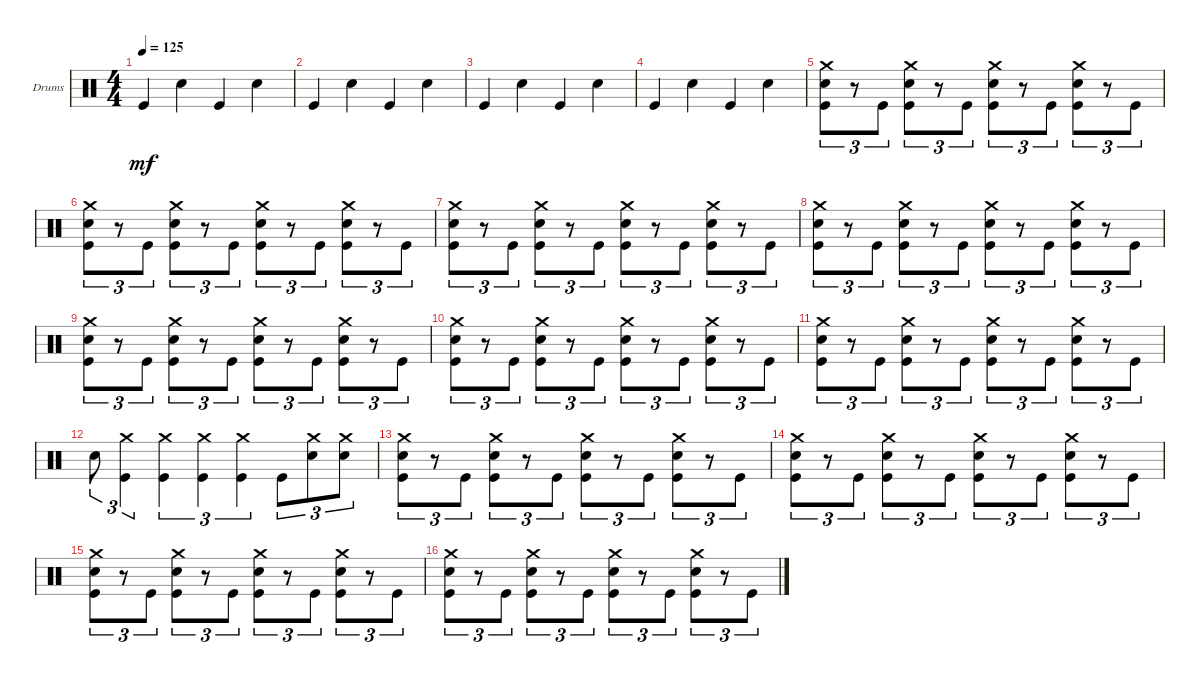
\defaultSystemsLayout 4
\bracketExtendMode groupsimilarinstruments
\firstSystemTrackNameOrientation horizontal
\otherSystemsTrackNameOrientation horizontal
\track ("Drumkit" "Drums") {instrument percussion}
\staff {score}
\articulation defaults
\ts (4 4)
\tempo 125
\clef neutral
\scale
0.333333
\ks c "Kick (hit)".4{dy mf} "Snare (hit) 2".4 "Kick (hit)".4 "Snare (hit) 2".4
|
\scale
0.333333 "Kick (hit)".4 "Snare (hit) 2".4 "Kick (hit)".4 "Snare (hit) 2".4 |
\scale
0.333333 "Kick (hit)".4 "Snare (hit) 2".4 "Kick (hit)".4 "Snare (hit) 2".4 |
\scale
0.333333 "Kick (hit)".4 "Snare (hit) 2".4 "Kick (hit)".4 "Snare (hit) 2".4 |
\scale
0.333333 ("Kick (hit)" "Crash medium (hit)" "Snare (hit) 2").8{tu (3 2)} r.8{tu (3 2)} "Kick (hit)".8{tu (3 2)} ("Kick (hit)" "Snare (hit) 2" "Crash medium (hit)").8{tu (3 2)} r.8{tu (3 2)} "Kick (hit)".8{tu (3 2)} ("Kick (hit)" "Snare (hit) 2" "Crash medium (hit)").8{tu (3 2)} r.8{tu (3 2)} "Kick (hit)".8{tu (3 2)} ("Kick (hit)" "Crash medium (hit)" "Snare (hit) 2").8{tu (3 2)} r.8{tu (3 2)} "Kick (hit)".8{tu (3 2)} |
\scale
0.333333 ("Kick (hit)" "Crash medium (hit)" "Snare (hit) 2").8{tu (3 2)} r.8{tu (3 2)} "Kick (hit)".8{tu (3 2)} ("Kick (hit)" "Snare (hit) 2" "Crash medium (hit)").8{tu (3 2)} r.8{tu (3 2)} "Kick (hit)".8{tu (3 2)} ("Kick (hit)" "Snare (hit) 2" "Crash medium (hit)").8{tu (3 2)} r.8{tu (3 2)} "Kick (hit)".8{tu (3 2)} ("Kick (hit)" "Crash medium (hit)" "Snare (hit) 2").8{tu (3 2)} r.8{tu (3 2)} "Kick (hit)".8{tu (3 2)} |
\scale
0.333333 ("Kick (hit)" "Crash medium (hit)" "Snare (hit) 2").8{tu (3 2)} r.8{tu (3 2)} "Kick (hit)".8{tu (3 2)} ("Kick (hit)" "Snare (hit) 2" "Crash medium (hit)").8{tu (3 2)} r.8{tu (3 2)} "Kick (hit)".8{tu (3 2)} ("Kick (hit)" "Snare (hit) 2" "Crash medium (hit)").8{tu (3 2)} r.8{tu (3 2)} "Kick (hit)".8{tu (3 2)} ("Kick (hit)" "Crash medium (hit)" "Snare (hit) 2").8{tu (3 2)} r.8{tu (3 2)} "Kick (hit)".8{tu (3 2)} |
\scale
0.333333 ("Kick (hit)" "Crash medium (hit)" "Snare (hit) 2").8{tu (3 2)} r.8{tu (3 2)} "Kick (hit)".8{tu (3 2)} ("Kick (hit)" "Snare (hit) 2" "Crash medium (hit)").8{tu (3 2)} r.8{tu (3 2)} "Kick (hit)".8{tu (3 2)} ("Kick (hit)" "Snare (hit) 2" "Crash medium (hit)").8{tu (3 2)} r.8{tu (3 2)} "Kick (hit)".8{tu (3 2)} ("Kick (hit)" "Crash medium (hit)" "Snare (hit) 2").8{tu (3 2)} r.8{tu (3 2)} "Kick (hit)".8{tu (3 2)} |
\scale
0.333333 ("Kick (hit)" "Crash medium (hit)" "Snare (hit) 2").8{tu (3 2)} r.8{tu (3 2)} "Kick (hit)".8{tu (3 2)} ("Kick (hit)" "Snare (hit) 2" "Crash medium (hit)").8{tu (3 2)} r.8{tu (3 2)} "Kick (hit)".8{tu (3 2)} ("Kick (hit)" "Snare (hit) 2" "Crash medium (hit)").8{tu (3 2)} r.8{tu (3 2)} "Kick (hit)".8{tu (3 2)} ("Kick (hit)" "Crash medium (hit)" "Snare (hit) 2").8{tu (3 2)} r.8{tu (3 2)} "Kick (hit)".8{tu (3 2)} |
\scale
0.333333 ("Kick (hit)" "Crash medium (hit)" "Snare (hit) 2").8{tu (3 2)} r.8{tu (3 2)} "Kick (hit)".8{tu (3 2)} ("Kick (hit)" "Snare (hit) 2" "Crash medium (hit)").8{tu (3 2)} r.8{tu (3 2)} "Kick (hit)".8{tu (3 2)} ("Kick (hit)" "Snare (hit) 2" "Crash medium (hit)").8{tu (3 2)} r.8{tu (3 2)} "Kick (hit)".8{tu (3 2)} ("Kick (hit)" "Crash medium (hit)" "Snare (hit) 2").8{tu (3 2)} r.8{tu (3 2)} "Kick (hit)".8{tu (3 2)} |
\scale
0.333333 ("Kick (hit)" "Crash medium (hit)" "Snare (hit) 2").8{tu (3 2)} r.8{tu (3 2)} "Kick (hit)".8{tu (3 2)} ("Kick (hit)" "Snare (hit) 2" "Crash medium (hit)").8{tu (3 2)} r.8{tu (3 2)} "Kick (hit)".8{tu (3 2)} ("Kick (hit)" "Snare (hit) 2" "Crash medium (hit)").8{tu (3 2)} r.8{tu (3 2)} "Kick (hit)".8{tu (3 2)} ("Kick (hit)" "Crash medium (hit)" "Snare (hit) 2").8{tu (3 2)} r.8{tu (3 2)} "Kick (hit)".8{tu (3 2)} |
"Snare (hit) 2".8{tu (3 2)} ("Kick (hit)" "Crash medium (hit)").4{tu (3 2)} ("Kick (hit)" "Crash medium (hit)").4{tu (3 2)} ("Kick (hit)" "Crash medium (hit)").4{tu (3 2)} ("Kick (hit)" "Crash medium (hit)").4{tu (3 2)} "Kick (hit)".8{tu (3 2)} ("Snare (hit) 2" "Crash medium (hit)").8{tu (3 2)} ("Snare (hit) 2" "Crash medium (hit)").8{tu (3 2)} |
("Kick (hit)" "Crash medium (hit)" "Snare (hit) 2").8{tu (3 2)} r.8{tu (3 2)} "Kick (hit)".8{tu (3 2)} ("Kick (hit)" "Snare (hit) 2" "Crash medium (hit)").8{tu (3 2)} r.8{tu (3 2)} "Kick (hit)".8{tu (3 2)} ("Kick (hit)" "Snare (hit) 2" "Crash medium (hit)").8{tu (3 2)} r.8{tu (3 2)} "Kick (hit)".8{tu (3 2)} ("Kick (hit)" "Crash medium (hit)" "Snare (hit) 2").8{tu (3 2)} r.8{tu (3 2)} "Kick (hit)".8{tu (3 2)} |
("Kick (hit)" "Crash medium (hit)" "Snare (hit) 2").8{tu (3 2)} r.8{tu (3 2)} "Kick (hit)".8{tu (3 2)} ("Kick (hit)" "Snare (hit) 2" "Crash medium (hit)").8{tu (3 2)} r.8{tu (3 2)} "Kick (hit)".8{tu (3 2)} ("Kick (hit)" "Snare (hit) 2" "Crash medium (hit)").8{tu (3 2)} r.8{tu (3 2)} "Kick (hit)".8{tu (3 2)} ("Kick (hit)" "Crash medium (hit)" "Snare (hit) 2").8{tu (3 2)} r.8{tu (3 2)} "Kick (hit)".8{tu (3 2)} |
("Kick (hit)" "Crash medium (hit)" "Snare (hit) 2").8{tu (3 2)} r.8{tu (3 2)} "Kick (hit)".8{tu (3 2)} ("Kick (hit)" "Snare (hit) 2" "Crash medium (hit)").8{tu (3 2)} r.8{tu (3 2)} "Kick (hit)".8{tu (3 2)} ("Kick (hit)" "Snare (hit) 2" "Crash medium (hit)").8{tu (3 2)} r.8{tu (3 2)} "Kick (hit)".8{tu (3 2)} ("Kick (hit)" "Crash medium (hit)" "Snare (hit) 2").8{tu (3 2)} r.8{tu (3 2)} "Kick (hit)".8{tu (3 2)} |
("Kick (hit)" "Crash medium (hit)" "Snare (hit) 2").8{tu (3 2)} r.8{tu (3 2)} "Kick (hit)".8{tu (3 2)} ("Kick (hit)" "Snare (hit) 2" "Crash medium (hit)").8{tu (3 2)} r.8{tu (3 2)} "Kick (hit)".8{tu (3 2)} ("Kick (hit)" "Snare (hit) 2" "Crash medium (hit)").8{tu (3 2)} r.8{tu (3 2)} "Kick (hit)".8{tu (3 2)} ("Kick (hit)" "Crash medium (hit)" "Snare (hit) 2").8{tu (3 2)} r.8{tu (3 2)} "Kick (hit)".8{tu (3 2)}
